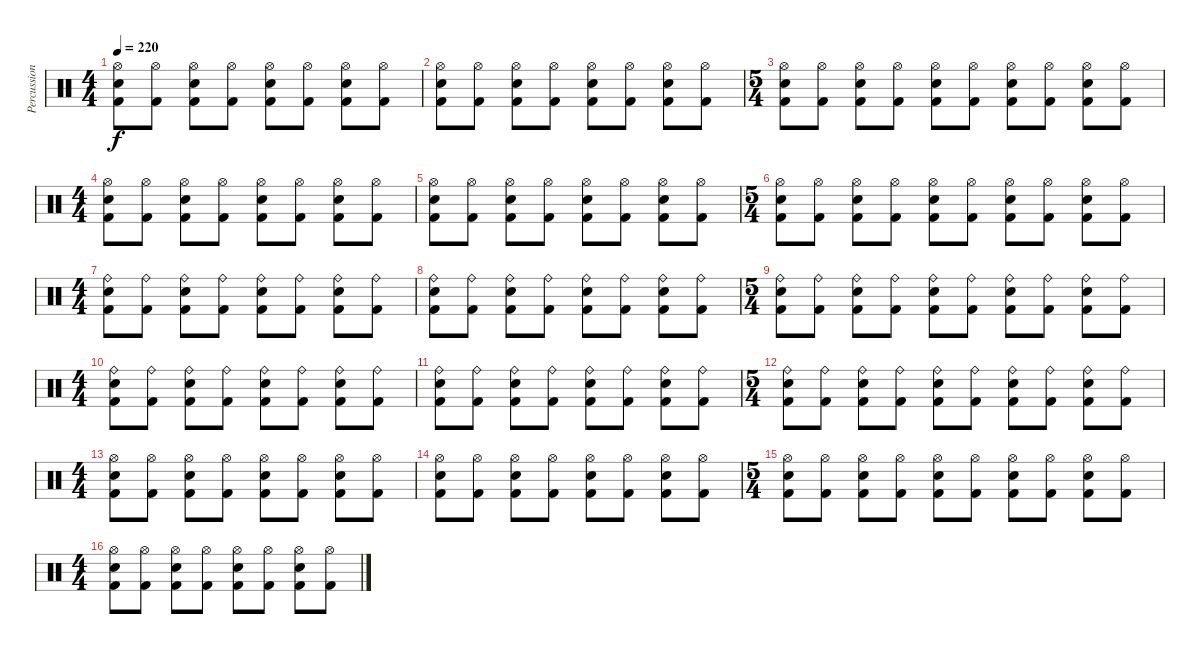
\track ("Percussions" "Percussion") {instrument percussion}
\staff {score}
\articulation defaults
\ts (4 4)
\tempo 220
\clef neutral
\ks c
("Kick (hit) 2" "Snare (hit) 2" "Hi-Hat (open)").8{dy f} ("Kick (hit) 2" "Hi-Hat (open)").8 ("Kick (hit) 2" "Snare (hit) 2" "Hi-Hat (open)").8 ("Kick (hit) 2" "Hi-Hat (open)").8 ("Kick (hit) 2" "Snare (hit) 2" "Hi-Hat (open)").8 ("Kick (hit) 2" "Hi-Hat (open)").8 ("Kick (hit) 2" "Snare (hit) 2" "Hi-Hat (open)").8 ("Kick (hit) 2" "Hi-Hat (open)").8 |
("Kick (hit) 2" "Snare (hit) 2" "Hi-Hat (open)").8 ("Kick (hit) 2" "Hi-Hat (open)").8 ("Kick (hit) 2" "Snare (hit) 2" "Hi-Hat (open)").8 ("Kick (hit) 2" "Hi-Hat (open)").8 ("Kick (hit) 2" "Snare (hit) 2" "Hi-Hat (open)").8 ("Kick (hit) 2" "Hi-Hat (open)").8 ("Kick (hit) 2" "Snare (hit) 2" "Hi-Hat (open)").8 ("Kick (hit) 2" "Hi-Hat (open)").8 |
\ts (5 4)
("Kick (hit) 2" "Snare (hit) 2" "Hi-Hat (open)").8 ("Kick (hit) 2" "Hi-Hat (open)").8 ("Kick (hit) 2" "Snare (hit) 2" "Hi-Hat (open)").8 ("Kick (hit) 2" "Hi-Hat (open)").8 ("Kick (hit) 2" "Snare (hit) 2" "Hi-Hat (open)").8 ("Kick (hit) 2" "Hi-Hat (open)").8 ("Kick (hit) 2" "Snare (hit) 2" "Hi-Hat (open)").8 ("Kick (hit) 2" "Hi-Hat (open)").8 ("Kick (hit) 2" "Snare (hit) 2" "Hi-Hat (open)").8 ("Kick (hit) 2" "Hi-Hat (open)").8 |
\ts (4 4)
("Kick (hit) 2" "Snare (hit) 2" "Hi-Hat (open)").8 ("Kick (hit) 2" "Hi-Hat (open)").8 ("Kick (hit) 2" "Snare (hit) 2" "Hi-Hat (open)").8 ("Kick (hit) 2" "Hi-Hat (open)").8 ("Kick (hit) 2" "Snare (hit) 2" "Hi-Hat (open)").8 ("Kick (hit) 2" "Hi-Hat (open)").8 ("Kick (hit) 2" "Snare (hit) 2" "Hi-Hat (open)").8 ("Kick (hit) 2" "Hi-Hat (open)").8 |
("Kick (hit) 2" "Snare (hit) 2" "Hi-Hat (open)").8 ("Kick (hit) 2" "Hi-Hat (open)").8 ("Kick (hit) 2" "Snare (hit) 2" "Hi-Hat (open)").8 ("Kick (hit) 2" "Hi-Hat (open)").8 ("Kick (hit) 2" "Snare (hit) 2" "Hi-Hat (open)").8 ("Kick (hit) 2" "Hi-Hat (open)").8 ("Kick (hit) 2" "Snare (hit) 2" "Hi-Hat (open)").8 ("Kick (hit) 2" "Hi-Hat (open)").8 |
\ts (5 4)
("Kick (hit) 2" "Snare (hit) 2" "Hi-Hat (open)").8 ("Kick (hit) 2" "Hi-Hat (open)").8 ("Kick (hit) 2" "Snare (hit) 2" "Hi-Hat (open)").8 ("Kick (hit) 2" "Hi-Hat (open)").8 ("Kick (hit) 2" "Snare (hit) 2" "Hi-Hat (open)").8 ("Kick (hit) 2" "Hi-Hat (open)").8 ("Kick (hit) 2" "Snare (hit) 2" "Hi-Hat (open)").8 ("Kick (hit) 2" "Hi-Hat (open)").8 ("Kick (hit) 2" "Snare (hit) 2" "Hi-Hat (open)").8 ("Kick (hit) 2" "Hi-Hat (open)").8 |
\ts (4 4)
("Kick (hit) 2" "Snare (hit) 2" "Ride (bell)").8 ("Kick (hit) 2" "Ride (bell)").8 ("Kick (hit) 2" "Snare (hit) 2" "Ride (bell)").8 ("Kick (hit) 2" "Ride (bell)").8 ("Kick (hit) 2" "Snare (hit) 2" "Ride (bell)").8 ("Kick (hit) 2" "Ride (bell)").8 ("Kick (hit) 2" "Snare (hit) 2" "Ride (bell)").8 ("Kick (hit) 2" "Ride (bell)").8 |
("Kick (hit) 2" "Snare (hit) 2" "Ride (bell)").8 ("Kick (hit) 2" "Ride (bell)").8 ("Kick (hit) 2" "Snare (hit) 2" "Ride (bell)").8 ("Kick (hit) 2" "Ride (bell)").8 ("Kick (hit) 2" "Snare (hit) 2" "Ride (bell)").8 ("Kick (hit) 2" "Ride (bell)").8 ("Kick (hit) 2" "Snare (hit) 2" "Ride (bell)").8 ("Kick (hit) 2" "Ride (bell)").8 |
\ts (5 4)
("Kick (hit) 2" "Snare (hit) 2" "Ride (bell)").8 ("Kick (hit) 2" "Ride (bell)").8 ("Kick (hit) 2" "Snare (hit) 2" "Ride (bell)").8 ("Kick (hit) 2" "Ride (bell)").8 ("Kick (hit) 2" "Snare (hit) 2" "Ride (bell)").8 ("Kick (hit) 2" "Ride (bell)").8 ("Kick (hit) 2" "Snare (hit) 2" "Ride (bell)").8 ("Kick (hit) 2" "Ride (bell)").8 ("Kick (hit) 2" "Snare (hit) 2" "Ride (bell)").8 ("Kick (hit) 2" "Ride (bell)").8 |
\ts (4 4)
("Kick (hit) 2" "Snare (hit) 2" "Ride (bell)").8 ("Kick (hit) 2" "Ride (bell)").8 ("Kick (hit) 2" "Snare (hit) 2" "Ride (bell)").8 ("Kick (hit) 2" "Ride (bell)").8 ("Kick (hit) 2" "Snare (hit) 2" "Ride (bell)").8 ("Kick (hit) 2" "Ride (bell)").8 ("Kick (hit) 2" "Snare (hit) 2" "Ride (bell)").8 ("Kick (hit) 2" "Ride (bell)").8 |
("Kick (hit) 2" "Snare (hit) 2" "Ride (bell)").8 ("Kick (hit) 2" "Ride (bell)").8 ("Kick (hit) 2" "Snare (hit) 2" "Ride (bell)").8 ("Kick (hit) 2" "Ride (bell)").8 ("Kick (hit) 2" "Snare (hit) 2" "Ride (bell)").8 ("Kick (hit) 2" "Ride (bell)").8 ("Kick (hit) 2" "Snare (hit) 2" "Ride (bell)").8 ("Kick (hit) 2" "Ride (bell)").8 |
\ts (5 4)
("Kick (hit) 2" "Snare (hit) 2" "Ride (bell)").8 ("Kick (hit) 2" "Ride (bell)").8 ("Kick (hit) 2" "Snare (hit) 2" "Ride (bell)").8 ("Kick (hit) 2" "Ride (bell)").8 ("Kick (hit) 2" "Snare (hit) 2" "Ride (bell)").8 ("Kick (hit) 2" "Ride (bell)").8 ("Kick (hit) 2" "Snare (hit) 2" "Ride (bell)").8 ("Kick (hit) 2" "Ride (bell)").8 ("Kick (hit) 2" "Snare (hit) 2" "Ride (bell)").8 ("Kick (hit) 2" "Ride (bell)").8 |
\ts (4 4)
("Kick (hit) 2" "Snare (hit) 2" "Hi-Hat (open)").8 ("Kick (hit) 2" "Hi-Hat (open)").8 ("Kick (hit) 2" "Snare (hit) 2" "Hi-Hat (open)").8 ("Kick (hit) 2" "Hi-Hat (open)").8 ("Kick (hit) 2" "Snare (hit) 2" "Hi-Hat (open)").8 ("Kick (hit) 2" "Hi-Hat (open)").8 ("Kick (hit) 2" "Snare (hit) 2" "Hi-Hat (open)").8 ("Kick (hit) 2" "Hi-Hat (open)").8 |
("Kick (hit) 2" "Snare (hit) 2" "Hi-Hat (open)").8 ("Kick (hit) 2" "Hi-Hat (open)").8 ("Kick (hit) 2" "Snare (hit) 2" "Hi-Hat (open)").8 ("Kick (hit) 2" "Hi-Hat (open)").8 ("Kick (hit) 2" "Snare (hit) 2" "Hi-Hat (open)").8 ("Kick (hit) 2" "Hi-Hat (open)").8 ("Kick (hit) 2" "Snare (hit) 2" "Hi-Hat (open)").8 ("Kick (hit) 2" "Hi-Hat (open)").8 |
\ts (5 4)
("Kick (hit) 2" "Snare (hit) 2" "Hi-Hat (open)").8 ("Kick (hit) 2" "Hi-Hat (open)").8 ("Kick (hit) 2" "Snare (hit) 2" "Hi-Hat (open)").8 ("Kick (hit) 2" "Hi-Hat (open)").8 ("Kick (hit) 2" "Snare (hit) 2" "Hi-Hat (open)").8 ("Kick (hit) 2" "Hi-Hat (open)").8 ("Kick (hit) 2" "Snare (hit) 2" "Hi-Hat (open)").8 ("Kick (hit) 2" "Hi-Hat (open)").8 ("Kick (hit) 2" "Snare (hit) 2" "Hi-Hat (open)").8 ("Kick (hit) 2" "Hi-Hat (open)").8 |
\ts (4 4)
("Kick (hit) 2" "Snare (hit) 2" "Hi-Hat (open)").8 ("Kick (hit) 2" "Hi-Hat (open)").8 ("Kick (hit) 2" "Snare (hit) 2" "Hi-Hat (open)").8 ("Kick (hit) 2" "Hi-Hat (open)").8 ("Kick (hit) 2" "Snare (hit) 2" "Hi-Hat (open)").8 ("Kick (hit) 2" "Hi-Hat (open)").8 ("Kick (hit) 2" "Snare (hit) 2" "Hi-Hat (open)").8 ("Kick (hit) 2" "Hi-Hat (open)").8
